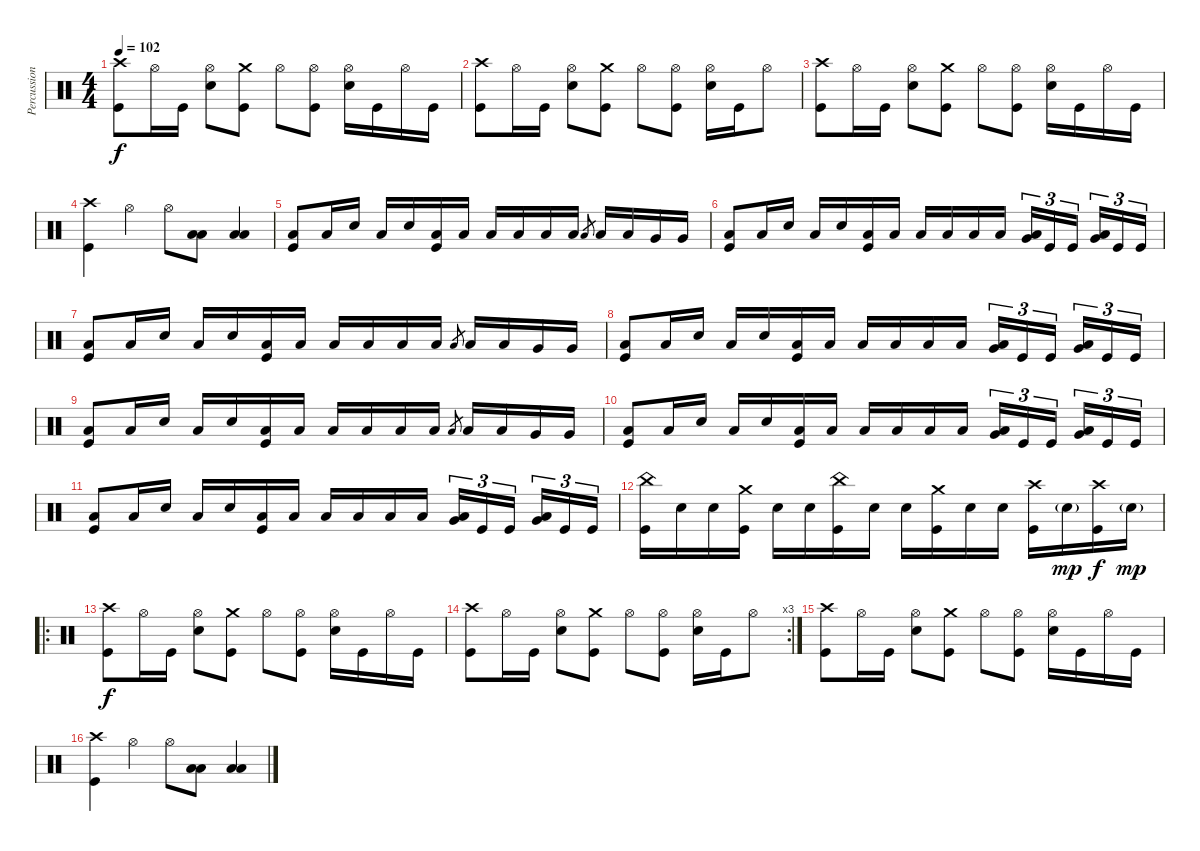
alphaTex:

\track ("Percussion" "Percussion") {instrument percussion}
\staff {score}
\articulation defaults
\ts (4 4)
\tempo 102
\clef neutral
\ks c
("Crash high (hit)" "Kick (hit)").8{dy f} "Hi-Hat (open)".16 "Kick (hit)".16 ("Hi-Hat (open)" "Electric Snare (hit)").8 ("Crash medium (hit)" "Kick (hit)").8 "Hi-Hat (open)".8 ("Hi-Hat (open)" "Kick (hit)").8 ("Hi-Hat (open)" "Electric Snare (hit)").16 "Kick (hit)".16 "Hi-Hat (open)".16 "Kick (hit)".16 |
("Crash high (hit)" "Kick (hit)").8 "Hi-Hat (open)".16 "Kick (hit)".16 ("Hi-Hat (open)" "Electric Snare (hit)").8 ("Crash medium (hit)" "Kick (hit)").8 "Hi-Hat (open)".8 ("Hi-Hat (open)" "Kick (hit)").8 ("Hi-Hat (open)" "Electric Snare (hit)").16 "Kick (hit)".16 "Hi-Hat (open)".8 |
("Crash high (hit)" "Kick (hit)").8 "Hi-Hat (open)".16 "Kick (hit)".16 ("Hi-Hat (open)" "Electric Snare (hit)").8 ("Crash medium (hit)" "Kick (hit)").8 "Hi-Hat (open)".8 ("Hi-Hat (open)" "Kick (hit)").8 ("Hi-Hat (open)" "Electric Snare (hit)").16 "Kick (hit)".16 "Hi-Hat (open)".16 "Kick (hit)".16 |
("Crash high (hit)" "Kick (hit)").4 "Hi-Hat (open)".4 "Hi-Hat (open)".8 ("Low Tom (hit)" "Low Floor Tom (hit)").8 ("Low Tom (hit)" "Low Floor Tom (hit)").4 |
("Low Floor Tom (hit)" "Kick (hit)").8 "Low Floor Tom (hit)".16 "Electric Snare (hit)".16 "Low Floor Tom (hit)".16 "Electric Snare (hit)".16 ("Low Floor Tom (hit)" "Kick (hit)").16 "Low Floor Tom (hit)".16 "Low Tom (hit)".16 "Low Floor Tom (hit)".16 "Low Tom (hit)".16 "Low Floor Tom (hit)".16 "Low Tom (hit)".8{gr} "Low Tom (hit)".16 "Low Tom (hit)".16 "Very Low Tom (hit)".16 "Very Low Tom (hit)".16 |
("Low Floor Tom (hit)" "Kick (hit)").8 "Low Floor Tom (hit)".16 "Electric Snare (hit)".16 "Low Floor Tom (hit)".16 "Electric Snare (hit)".16 ("Low Floor Tom (hit)" "Kick (hit)").16 "Low Floor Tom (hit)".16 "Low Tom (hit)".16 "Low Floor Tom (hit)".16 "Low Tom (hit)".16 "Low Floor Tom (hit)".16 ("Low Tom (hit)" "Very Low Tom (hit)").16{tu (3 2)} "Kick (hit)".16{tu (3 2)} "Kick (hit)".16{tu (3 2) beam splitsecondary} ("Very Low Tom (hit)" "Low Floor Tom (hit)").16{tu (3 2)} "Kick (hit)".16{tu (3 2)} "Kick (hit)".16{tu (3 2)} |
("Low Floor Tom (hit)" "Kick (hit)").8 "Low Floor Tom (hit)".16 "Electric Snare (hit)".16 "Low Floor Tom (hit)".16 "Electric Snare (hit)".16 ("Low Floor Tom (hit)" "Kick (hit)").16 "Low Floor Tom (hit)".16 "Low Tom (hit)".16 "Low Floor Tom (hit)".16 "Low Tom (hit)".16 "Low Floor Tom (hit)".16 "Low Tom (hit)".8{gr} "Low Tom (hit)".16 "Low Tom (hit)".16 "Very Low Tom (hit)".16 "Very Low Tom (hit)".16 |
("Low Floor Tom (hit)" "Kick (hit)").8 "Low Floor Tom (hit)".16 "Electric Snare (hit)".16 "Low Floor Tom (hit)".16 "Electric Snare (hit)".16 ("Low Floor Tom (hit)" "Kick (hit)").16 "Low Floor Tom (hit)".16 "Low Tom (hit)".16 "Low Floor Tom (hit)".16 "Low Tom (hit)".16 "Low Floor Tom (hit)".16 ("Low Tom (hit)" "Very Low Tom (hit)").16{tu (3 2)} "Kick (hit)".16{tu (3 2)} "Kick (hit)".16{tu (3 2) beam splitsecondary} ("Very Low Tom (hit)" "Low Floor Tom (hit)").16{tu (3 2)} "Kick (hit)".16{tu (3 2)} "Kick (hit)".16{tu (3 2)} |
("Low Floor Tom (hit)" "Kick (hit)").8 "Low Floor Tom (hit)".16 "Electric Snare (hit)".16 "Low Floor Tom (hit)".16 "Electric Snare (hit)".16 ("Low Floor Tom (hit)" "Kick (hit)").16 "Low Floor Tom (hit)".16 "Low Tom (hit)".16 "Low Floor Tom (hit)".16 "Low Tom (hit)".16 "Low Floor Tom (hit)".16 "Low Tom (hit)".8{gr} "Low Tom (hit)".16 "Low Tom (hit)".16 "Very Low Tom (hit)".16 "Very Low Tom (hit)".16 |
("Low Floor Tom (hit)" "Kick (hit)").8 "Low Floor Tom (hit)".16 "Electric Snare (hit)".16 "Low Floor Tom (hit)".16 "Electric Snare (hit)".16 ("Low Floor Tom (hit)" "Kick (hit)").16 "Low Floor Tom (hit)".16 "Low Tom (hit)".16 "Low Floor Tom (hit)".16 "Low Tom (hit)".16 "Low Floor Tom (hit)".16 ("Low Tom (hit)" "Very Low Tom (hit)").16{tu (3 2)} "Kick (hit)".16{tu (3 2)} "Kick (hit)".16{tu (3 2) beam splitsecondary} ("Very Low Tom (hit)" "Low Floor Tom (hit)").16{tu (3 2)} "Kick (hit)".16{tu (3 2)} "Kick (hit)".16{tu (3 2)} |
("Low Floor Tom (hit)" "Kick (hit)").8 "Low Floor Tom (hit)".16 "Electric Snare (hit)".16 "Low Floor Tom (hit)".16 "Electric Snare (hit)".16 ("Low Floor Tom (hit)" "Kick (hit)").16 "Low Floor Tom (hit)".16 "Low Tom (hit)".16 "Low Floor Tom (hit)".16 "Low Tom (hit)".16 "Low Floor Tom (hit)".16 ("Low Tom (hit)" "Very Low Tom (hit)").16{tu (3 2)} "Kick (hit)".16{tu (3 2)} "Kick (hit)".16{tu (3 2) beam splitsecondary} ("Very Low Tom (hit)" "Low Floor Tom (hit)").16{tu (3 2)} "Kick (hit)".16{tu (3 2)} "Kick (hit)".16{tu (3 2)} |
("China (hit)" "Kick (hit)").16 "Electric Snare (hit)".16 "Electric Snare (hit)".16 ("Crash medium (hit)" "Kick (hit)").16 "Electric Snare (hit)".16 "Electric Snare (hit)".16 ("China (hit)" "Kick (hit)").16 "Electric Snare (hit)".16 "Electric Snare (hit)".16 ("Crash medium (hit)" "Kick (hit)").16 "Electric Snare (hit)".16 "Electric Snare (hit)".16 ("Crash high (hit)" "Kick (hit)").16 "Electric Snare (hit)"{g}.16{dy mp} ("Crash high (hit)" "Kick (hit)").16{dy f} "Electric Snare (hit)"{g}.16{dy mp} |
\ro
("Crash high (hit)" "Kick (hit)").8{dy f} "Hi-Hat (open)".16 "Kick (hit)".16 ("Hi-Hat (open)" "Electric Snare (hit)").8 ("Crash medium (hit)" "Kick (hit)").8 "Hi-Hat (open)".8 ("Hi-Hat (open)" "Kick (hit)").8 ("Hi-Hat (open)" "Electric Snare (hit)").16 "Kick (hit)".16 "Hi-Hat (open)".16 "Kick (hit)".16 |
\rc 3
("Crash high (hit)" "Kick (hit)").8 "Hi-Hat (open)".16 "Kick (hit)".16 ("Hi-Hat (open)" "Electric Snare (hit)").8 ("Crash medium (hit)" "Kick (hit)").8 "Hi-Hat (open)".8 ("Hi-Hat (open)" "Kick (hit)").8 ("Hi-Hat (open)" "Electric Snare (hit)").16 "Kick (hit)".16 "Hi-Hat (open)".8 |
("Crash high (hit)" "Kick (hit)").8 "Hi-Hat (open)".16 "Kick (hit)".16 ("Hi-Hat (open)" "Electric Snare (hit)").8 ("Crash medium (hit)" "Kick (hit)").8 "Hi-Hat (open)".8 ("Hi-Hat (open)" "Kick (hit)").8 ("Hi-Hat (open)" "Electric Snare (hit)").16 "Kick (hit)".16 "Hi-Hat (open)".16 "Kick (hit)".16 |
("Crash high (hit)" "Kick (hit)").4 "Hi-Hat (open)".4 "Hi-Hat (open)".8 ("Low Tom (hit)" "Low Floor Tom (hit)").8 ("Low Tom (hit)" "Low Floor Tom (hit)").4
